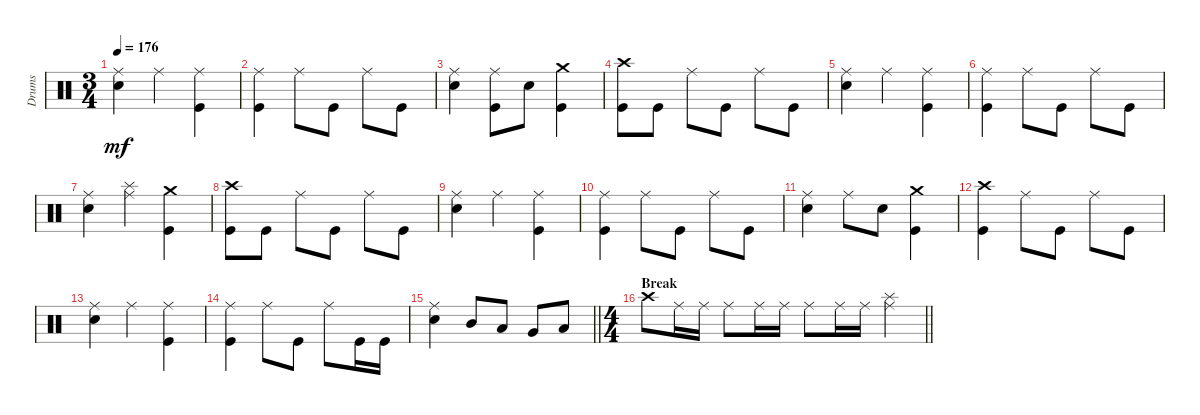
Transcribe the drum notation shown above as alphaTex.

\track ("Drums" "Drums") {instrument percussion}
\staff {score}
\articulation defaults
\ts (3 4)
\tempo 176
\clef neutral
\ks c
("Snare (hit) 2" "Ride (middle)").4{dy mf} "Ride (middle)".4 ("Kick (hit)" "Ride (middle)").4 |
("Kick (hit)" "Ride (middle)").4 "Ride (middle)".8 "Kick (hit)".8 "Ride (middle)".8 "Kick (hit)".8 |
("Snare (hit) 2" "Ride (middle)").4 ("Ride (middle)" "Kick (hit)").8 "Snare (hit) 2".8 ("Kick (hit)" "Crash medium (hit)").4 |
("Kick (hit)" "Crash high (hit)").8 "Kick (hit)".8 "Ride (middle)".8 "Kick (hit)".8 "Ride (middle)".8 "Kick (hit)".8 |
("Snare (hit) 2" "Ride (middle)").4 "Ride (middle)".4 ("Kick (hit)" "Ride (middle)").4 |
("Kick (hit)" "Ride (middle)").4 "Ride (middle)".8 "Kick (hit)".8 "Ride (middle)".8 "Kick (hit)".8 |
("Snare (hit) 2" "Ride (middle)").4 ("Ride (middle)" "Splash (hit)").4 ("Kick (hit)" "Crash medium (hit)").4 |
("Kick (hit)" "Crash high (hit)").8 "Kick (hit)".8 "Ride (middle)".8 "Kick (hit)".8 "Ride (middle)".8 "Kick (hit)".8 |
("Snare (hit) 2" "Ride (middle)").4 "Ride (middle)".4 ("Kick (hit)" "Ride (middle)").4 |
("Kick (hit)" "Ride (middle)").4 "Ride (middle)".8 "Kick (hit)".8 "Ride (middle)".8 "Kick (hit)".8 |
("Snare (hit) 2" "Ride (middle)").4 "Ride (middle)".8 "Snare (hit) 2".8 ("Kick (hit)" "Crash medium (hit)").4 |
("Kick (hit)" "Crash high (hit)").4 "Ride (middle)".8 "Kick (hit)".8 "Ride (middle)".8 "Kick (hit)".8 |
("Snare (hit) 2" "Ride (middle)").4 "Ride (middle)".4 ("Kick (hit)" "Ride (middle)").4 |
("Kick (hit)" "Ride (middle)").4 "Ride (middle)".8 "Kick (hit)".8 "Ride (middle)".8 "Kick (hit)".16 "Kick (hit)".16 |
\barLineRight lightlight
("Snare (hit) 2" "Ride (middle)").4 "Mid Tom (hit)".8 "Low Tom (hit)".8 "Very Low Tom (hit)".8 "Low Floor Tom (hit)".8 |
\ts (4 4)
\section ("" "Break")
\barLineRight lightlight "Crash high (hit)".8 "Ride (middle)".16 "Ride (middle)".16 "Ride (middle)".8 "Ride (middle)".16 "Ride (middle)".16 "Ride (middle)".8 "Ride (middle)".16 "Ride (middle)".16
("Ride (middle)" "Splash (hit)").4
